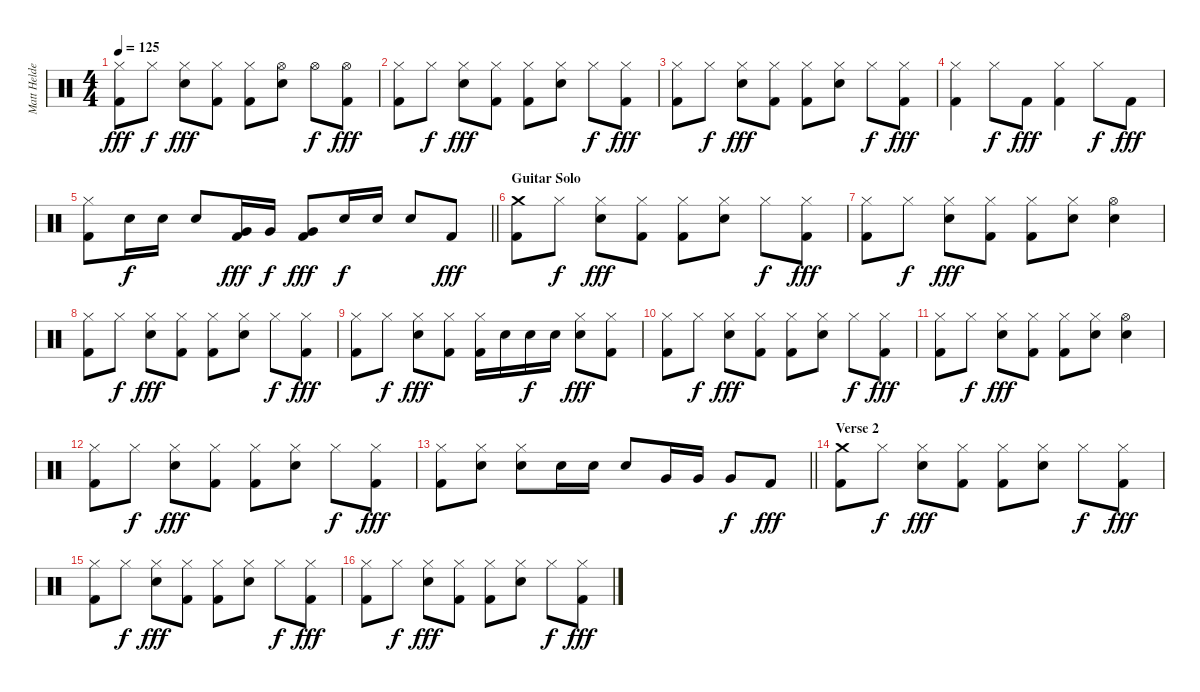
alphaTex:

\track ("Matt Helders" "Matt Helde") {instrument percussion}
\staff {score}
\articulation defaults
\ts (4 4)
\tempo 125
\clef neutral
\ks c
("Hi-Hat (closed)" "Kick (hit) 2").8{dy fff} "Hi-Hat (closed)".8{dy f} ("Hi-Hat (closed)" "Electric Snare (hit)").8{dy fff} ("Hi-Hat (closed)" "Kick (hit) 2").8 ("Hi-Hat (closed)" "Kick (hit) 2").8 ("Hi-Hat (open)" "Electric Snare (hit)").8 "Hi-Hat (open)".8{dy f} ("Hi-Hat (open)" "Kick (hit) 2").8{dy fff} |
("Hi-Hat (closed)" "Kick (hit) 2").8 "Hi-Hat (closed)".8{dy f} ("Hi-Hat (closed)" "Electric Snare (hit)").8{dy fff} ("Hi-Hat (closed)" "Kick (hit) 2").8 ("Hi-Hat (closed)" "Kick (hit) 2").8 ("Hi-Hat (closed)" "Electric Snare (hit)").8 "Hi-Hat (closed)".8{dy f} ("Hi-Hat (closed)" "Kick (hit) 2").8{dy fff} |
("Hi-Hat (closed)" "Kick (hit) 2").8 "Hi-Hat (closed)".8{dy f} ("Hi-Hat (closed)" "Electric Snare (hit)").8{dy fff} ("Hi-Hat (closed)" "Kick (hit) 2").8 ("Hi-Hat (closed)" "Kick (hit) 2").8 ("Hi-Hat (closed)" "Electric Snare (hit)").8 "Hi-Hat (closed)".8{dy f} ("Hi-Hat (closed)" "Kick (hit) 2").8{dy fff} |
("Hi-Hat (closed)" "Kick (hit) 2").4 "Hi-Hat (closed)".8{dy f} "Kick (hit) 2".8{dy fff} ("Hi-Hat (closed)" "Kick (hit) 2").4 "Hi-Hat (closed)".8{dy f} "Kick (hit) 2".8{dy fff} |
\barLineRight lightlight
("Hi-Hat (closed)" "Kick (hit) 2").8 "Electric Snare (hit)".16{dy f} "Electric Snare (hit)".16 "Electric Snare (hit)".8 ("Very Low Tom (hit)" "Kick (hit) 2").16{dy fff} "Very Low Tom (hit)".16{dy f} ("Very Low Tom (hit)" "Kick (hit) 2").8{dy fff} "Electric Snare (hit)".16{dy f} "Electric Snare (hit)".16 "Electric Snare (hit)".8 "Kick (hit) 2".8{dy fff} |
\section ("" "Guitar Solo")
("Crash medium (hit)" "Kick (hit) 2").8 "Hi-Hat (closed)".8{dy f} ("Hi-Hat (closed)" "Electric Snare (hit)").8{dy fff} ("Hi-Hat (closed)" "Kick (hit) 2").8 ("Hi-Hat (closed)" "Kick (hit) 2").8 ("Hi-Hat (closed)" "Electric Snare (hit)").8 "Hi-Hat (closed)".8{dy f} ("Hi-Hat (closed)" "Kick (hit) 2").8{dy fff} |
("Hi-Hat (closed)" "Kick (hit) 2").8 "Hi-Hat (closed)".8{dy f} ("Hi-Hat (closed)" "Electric Snare (hit)").8{dy fff} ("Hi-Hat (closed)" "Kick (hit) 2").8 ("Hi-Hat (closed)" "Kick (hit) 2").8 ("Hi-Hat (closed)" "Electric Snare (hit)").8 ("Hi-Hat (open)" "Electric Snare (hit)").4 |
("Hi-Hat (closed)" "Kick (hit) 2").8 "Hi-Hat (closed)".8{dy f} ("Hi-Hat (closed)" "Electric Snare (hit)").8{dy fff} ("Hi-Hat (closed)" "Kick (hit) 2").8 ("Hi-Hat (closed)" "Kick (hit) 2").8 ("Hi-Hat (closed)" "Electric Snare (hit)").8 "Hi-Hat (closed)".8{dy f} ("Hi-Hat (closed)" "Kick (hit) 2").8{dy fff} |
("Hi-Hat (closed)" "Kick (hit) 2").8 "Hi-Hat (closed)".8{dy f} ("Hi-Hat (closed)" "Electric Snare (hit)").8{dy fff} ("Hi-Hat (closed)" "Kick (hit) 2").8 ("Hi-Hat (closed)" "Kick (hit) 2").16 "Electric Snare (hit)".16 "Electric Snare (hit)".16{dy f} "Electric Snare (hit)".16 ("Hi-Hat (closed)" "Electric Snare (hit)").8{dy fff} ("Hi-Hat (closed)" "Kick (hit) 2").8 |
("Hi-Hat (closed)" "Kick (hit) 2").8 "Hi-Hat (closed)".8{dy f} ("Hi-Hat (closed)" "Electric Snare (hit)").8{dy fff} ("Hi-Hat (closed)" "Kick (hit) 2").8 ("Hi-Hat (closed)" "Kick (hit) 2").8 ("Hi-Hat (closed)" "Electric Snare (hit)").8 "Hi-Hat (closed)".8{dy f} ("Hi-Hat (closed)" "Kick (hit) 2").8{dy fff} |
("Hi-Hat (closed)" "Kick (hit) 2").8 "Hi-Hat (closed)".8{dy f} ("Hi-Hat (closed)" "Electric Snare (hit)").8{dy fff} ("Hi-Hat (closed)" "Kick (hit) 2").8 ("Hi-Hat (closed)" "Kick (hit) 2").8 ("Hi-Hat (closed)" "Electric Snare (hit)").8 ("Hi-Hat (open)" "Electric Snare (hit)").4 |
("Hi-Hat (closed)" "Kick (hit) 2").8 "Hi-Hat (closed)".8{dy f} ("Hi-Hat (closed)" "Electric Snare (hit)").8{dy fff} ("Hi-Hat (closed)" "Kick (hit) 2").8 ("Hi-Hat (closed)" "Kick (hit) 2").8 ("Hi-Hat (closed)" "Electric Snare (hit)").8 "Hi-Hat (closed)".8{dy f} ("Hi-Hat (closed)" "Kick (hit) 2").8{dy fff} |
\barLineRight lightlight
("Hi-Hat (closed)" "Kick (hit) 2").8 ("Hi-Hat (closed)" "Electric Snare (hit)").8 ("Hi-Hat (closed)" "Electric Snare (hit)").8 "Electric Snare (hit)".16 "Electric Snare (hit)".16 "Electric Snare (hit)".8 "Very Low Tom (hit)".16 "Very Low Tom (hit)".16 "Very Low Tom (hit)".8{dy f} "Kick (hit) 2".8{dy fff} |
\section ("" "Verse 2")
("Crash medium (hit)" "Kick (hit) 2").8 "Hi-Hat (closed)".8{dy f} ("Hi-Hat (closed)" "Electric Snare (hit)").8{dy fff} ("Hi-Hat (closed)" "Kick (hit) 2").8 ("Hi-Hat (closed)" "Kick (hit) 2").8 ("Hi-Hat (closed)" "Electric Snare (hit)").8 "Hi-Hat (closed)".8{dy f} ("Hi-Hat (closed)" "Kick (hit) 2").8{dy fff} |
("Hi-Hat (closed)" "Kick (hit) 2").8 "Hi-Hat (closed)".8{dy f} ("Hi-Hat (closed)" "Electric Snare (hit)").8{dy fff} ("Hi-Hat (closed)" "Kick (hit) 2").8 ("Hi-Hat (closed)" "Kick (hit) 2").8 ("Hi-Hat (closed)" "Electric Snare (hit)").8 "Hi-Hat (closed)".8{dy f} ("Hi-Hat (closed)" "Kick (hit) 2").8{dy fff} |
("Hi-Hat (closed)" "Kick (hit) 2").8 "Hi-Hat (closed)".8{dy f} ("Hi-Hat (closed)" "Electric Snare (hit)").8{dy fff} ("Hi-Hat (closed)" "Kick (hit) 2").8 ("Hi-Hat (closed)" "Kick (hit) 2").8 ("Hi-Hat (closed)" "Electric Snare (hit)").8 "Hi-Hat (closed)".8{dy f} ("Hi-Hat (closed)" "Kick (hit) 2").8{dy fff}
